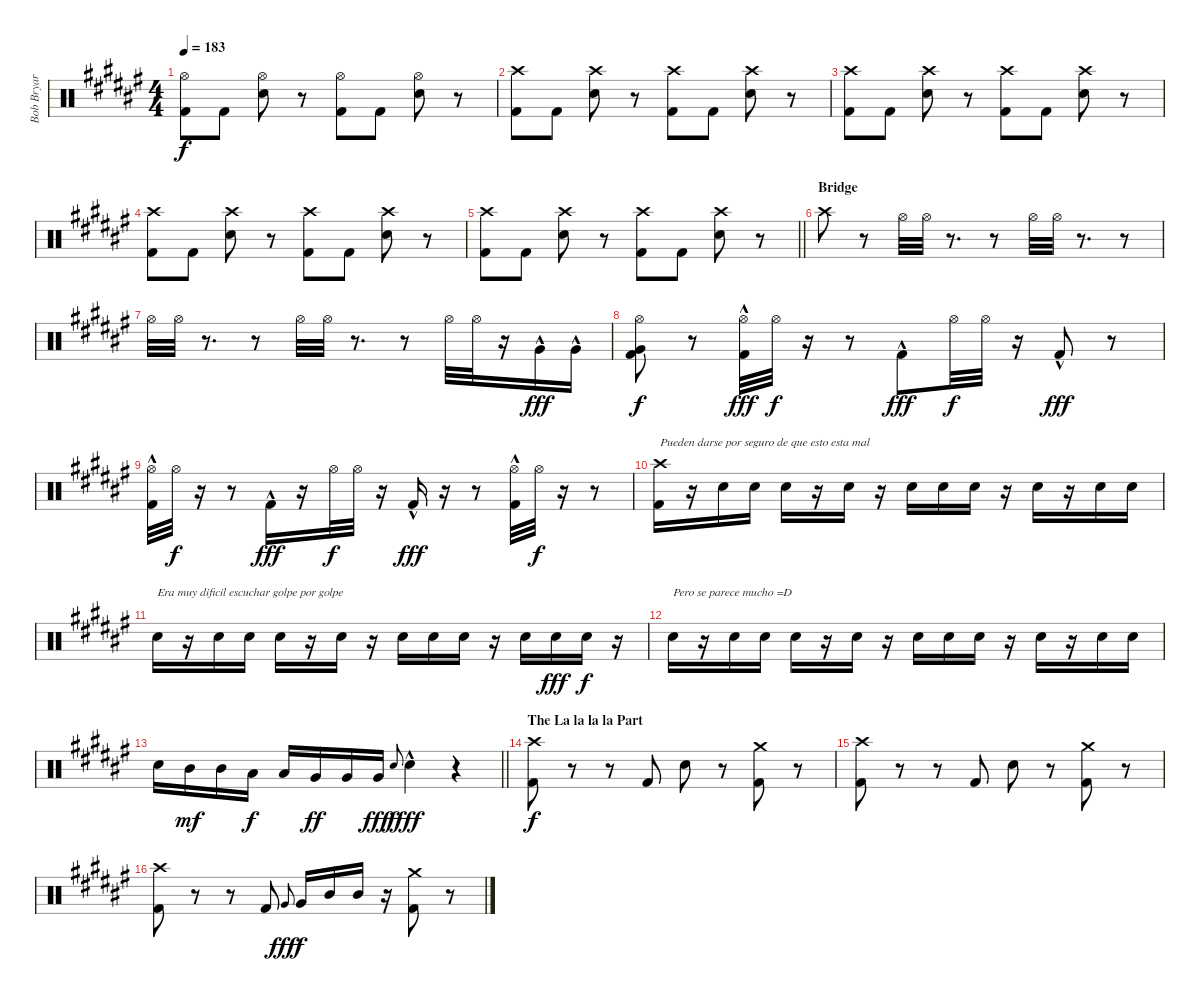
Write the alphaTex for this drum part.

\track ("Bob Bryar" "Bob Bryar") {instrument percussion}
\staff {score}
\articulation defaults
\ts (4 4)
\tempo 183
\clef neutral
\ks d#minor
("Hi-Hat (open)" "Kick (hit) 2").8{dy f} "Kick (hit) 2".8 ("Hi-Hat (open)" "Electric Snare (hit)").8 r.8 ("Hi-Hat (open)" "Kick (hit) 2").8 "Kick (hit) 2".8 ("Hi-Hat (open)" "Electric Snare (hit)").8 r.8 |
("Crash high (hit)" "Kick (hit) 2").8 "Kick (hit) 2".8 ("Crash high (hit)" "Electric Snare (hit)").8 r.8 ("Crash high (hit)" "Kick (hit) 2").8 "Kick (hit) 2".8 ("Crash high (hit)" "Electric Snare (hit)").8 r.8 |
("Crash high (hit)" "Kick (hit) 2").8 "Kick (hit) 2".8 ("Crash high (hit)" "Electric Snare (hit)").8 r.8 ("Crash high (hit)" "Kick (hit) 2").8 "Kick (hit) 2".8 ("Crash high (hit)" "Electric Snare (hit)").8 r.8 |
("Crash high (hit)" "Kick (hit) 2").8 "Kick (hit) 2".8 ("Crash high (hit)" "Electric Snare (hit)").8 r.8 ("Crash high (hit)" "Kick (hit) 2").8 "Kick (hit) 2".8 ("Crash high (hit)" "Electric Snare (hit)").8 r.8 |
\barLineRight lightlight
("Crash high (hit)" "Kick (hit) 2").8 "Kick (hit) 2".8 ("Crash high (hit)" "Electric Snare (hit)").8 r.8 ("Crash high (hit)" "Kick (hit) 2").8 "Kick (hit) 2".8 ("Crash high (hit)" "Electric Snare (hit)").8 r.8 |
\section ("" "Bridge")
"Crash high (hit)".8 r.8 "Hi-Hat (open)".32 "Hi-Hat (open)".32 r.8{d} r.8 "Hi-Hat (open)".32 "Hi-Hat (open)".32 r.8{d} r.8 |
"Hi-Hat (open)".32 "Hi-Hat (open)".32 r.8{d} r.8 "Hi-Hat (open)".32 "Hi-Hat (open)".32 r.8{d} r.8 "Hi-Hat (open)".32 "Hi-Hat (open)".32 r.16 "Very Low Tom (hit)"{hac}.16{dy fff} "Very Low Tom (hit)"{hac}.16 |
("Hi-Hat (open)" "Very Low Tom (hit)" "Kick (hit) 2").8{dy f} r.8 ("Hi-Hat (open)" "Kick (hit) 2"{hac}).32{dy fff} "Hi-Hat (open)".32{dy f} r.16 r.8 "Kick (hit) 2"{hac}.8{dy fff} "Hi-Hat (open)".32{dy f} "Hi-Hat (open)".32 r.16 "Kick (hit) 2"{hac}.8{dy fff} r.8 |
("Hi-Hat (open)" "Kick (hit) 2"{hac}).32 "Hi-Hat (open)".32{dy f} r.16 r.8 "Kick (hit) 2"{hac}.16{dy fff} r.16 "Hi-Hat (open)".32{dy f} "Hi-Hat (open)".32 r.16 "Kick (hit) 2"{hac}.16{dy fff} r.16 r.8 ("Hi-Hat (open)" "Kick (hit) 2"{hac}).32 "Hi-Hat (open)".32{dy f} r.16 r.8 |
("Crash high (hit)" "Kick (hit) 2").16{txt "Pueden darse por seguro de que esto esta mal"} r.16 "Electric Snare (hit)".16 "Electric Snare (hit)".16 "Electric Snare (hit)".16 r.16 "Electric Snare (hit)".16 r.16 "Electric Snare (hit)".16 "Electric Snare (hit)".16 "Electric Snare (hit)".16 r.16 "Electric Snare (hit)".16 r.16 "Electric Snare (hit)".16 "Electric Snare (hit)".16 |
"Electric Snare (hit)".16{txt "Era muy dificil escuchar golpe por golpe"} r.16 "Electric Snare (hit)".16 "Electric Snare (hit)".16 "Electric Snare (hit)".16 r.16 "Electric Snare (hit)".16 r.16 "Electric Snare (hit)".16 "Electric Snare (hit)".16 "Electric Snare (hit)".16 r.16 "Electric Snare (hit)".16 "Electric Snare (hit)".16{dy fff} "Electric Snare (hit)".16{dy f} r.16 |
"Electric Snare (hit)".16{txt "Pero se parece mucho =D"} r.16 "Electric Snare (hit)".16 "Electric Snare (hit)".16 "Electric Snare (hit)".16 r.16 "Electric Snare (hit)".16 r.16 "Electric Snare (hit)".16 "Electric Snare (hit)".16 "Electric Snare (hit)".16 r.16 "Electric Snare (hit)".16 r.16 "Electric Snare (hit)".16 "Electric Snare (hit)".16 |
\barLineRight lightlight "Electric Snare (hit)".16 "Mid Tom (hit)".16{dy mf} "Mid Tom (hit)".16 "Low Tom (hit)".16{dy f} "Low Tom (hit)".16 "Very Low Tom (hit)".16{dy ff} "Very Low Tom (hit)".16 "Very Low Tom (hit)".16{dy fff} "Electric Snare (hit)".8{gr onbeat dy f} "Electric Snare (hit)"{hac}.4{dy fff}
r.4 |
\section ("" "The La la la la Part")
("Crash high (hit)" "Kick (hit) 2").8{dy f} r.8 r.8 "Kick (hit) 2".8 "Electric Snare (hit)".8 r.8 ("Crash medium (hit)" "Kick (hit) 2").8 r.8 |
("Crash high (hit)" "Kick (hit) 2").8 r.8 r.8 "Kick (hit) 2".8 "Electric Snare (hit)".8 r.8 ("Crash medium (hit)" "Kick (hit) 2").8 r.8 |
("Crash high (hit)" "Kick (hit) 2").8 r.8 r.8 "Kick (hit) 2".8 "Very Low Tom (hit)".8{gr onbeat dy fff} "Very Low Tom (hit)".16{dy f} "Mid Tom (hit)".16 "Mid Tom (hit)".16 r.16 ("Crash medium (hit)" "Kick (hit) 2").8 r.8
